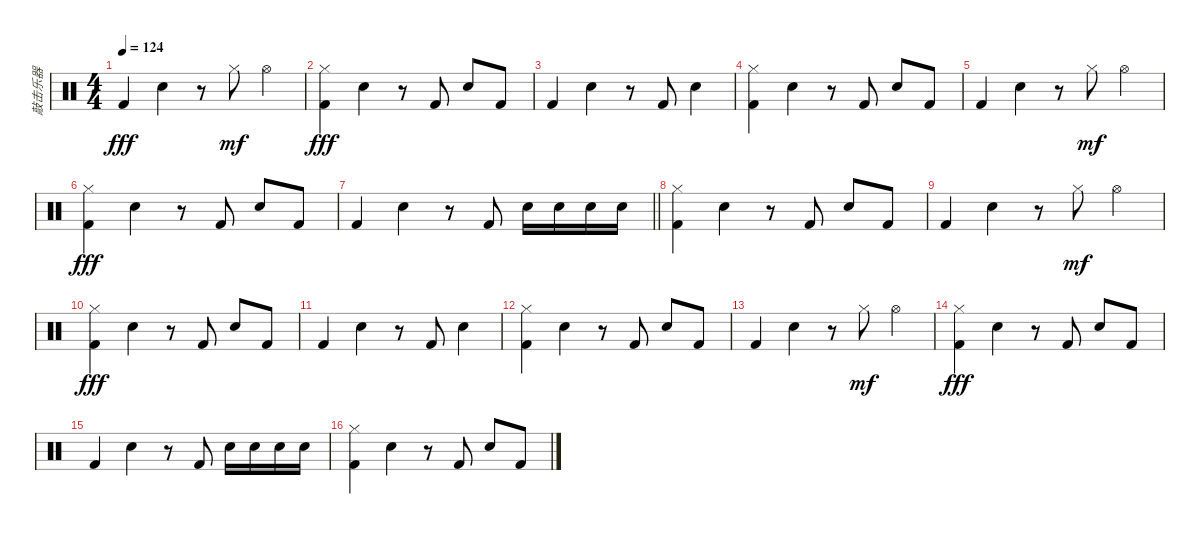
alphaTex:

\track ("敲击乐器" "敲击乐器") {instrument percussion}
\staff {score}
\articulation defaults
\ts (4 4)
\tempo 124
\clef neutral
\ks c "Kick (hit) 2".4{dy fff} "Snare (hit) 2".4
r.8 "Hi-Hat (closed)".8{dy mf} "Hi-Hat (open)".4 |
("Hi-Hat (closed)" "Kick (hit) 2").4{dy fff} "Snare (hit) 2".4 r.8 "Kick (hit) 2".8 "Snare (hit) 2".8 "Kick (hit) 2".8 |
"Kick (hit) 2".4 "Snare (hit) 2".4 r.8 "Kick (hit) 2".8 "Snare (hit) 2".4 |
("Hi-Hat (closed)" "Kick (hit) 2").4 "Snare (hit) 2".4 r.8 "Kick (hit) 2".8 "Snare (hit) 2".8 "Kick (hit) 2".8 |
"Kick (hit) 2".4 "Snare (hit) 2".4 r.8 "Hi-Hat (closed)".8{dy mf} "Hi-Hat (open)".4 |
("Hi-Hat (closed)" "Kick (hit) 2").4{dy fff} "Snare (hit) 2".4 r.8 "Kick (hit) 2".8 "Snare (hit) 2".8 "Kick (hit) 2".8 |
\barLineRight lightlight "Kick (hit) 2".4 "Snare (hit) 2".4
r.8 "Kick (hit) 2".8 "Snare (hit) 2".16 "Snare (hit) 2".16 "Snare (hit) 2".16 "Snare (hit) 2".16 |
("Hi-Hat (closed)" "Kick (hit) 2").4 "Snare (hit) 2".4 r.8 "Kick (hit) 2".8 "Snare (hit) 2".8 "Kick (hit) 2".8 |
"Kick (hit) 2".4 "Snare (hit) 2".4 r.8 "Hi-Hat (closed)".8{dy mf} "Hi-Hat (open)".4 |
("Hi-Hat (closed)" "Kick (hit) 2").4{dy fff} "Snare (hit) 2".4 r.8 "Kick (hit) 2".8 "Snare (hit) 2".8 "Kick (hit) 2".8 |
"Kick (hit) 2".4 "Snare (hit) 2".4 r.8 "Kick (hit) 2".8 "Snare (hit) 2".4 |
("Hi-Hat (closed)" "Kick (hit) 2").4 "Snare (hit) 2".4 r.8 "Kick (hit) 2".8 "Snare (hit) 2".8 "Kick (hit) 2".8 |
"Kick (hit) 2".4 "Snare (hit) 2".4 r.8 "Hi-Hat (closed)".8{dy mf} "Hi-Hat (open)".4 |
("Hi-Hat (closed)" "Kick (hit) 2").4{dy fff} "Snare (hit) 2".4 r.8 "Kick (hit) 2".8 "Snare (hit) 2".8 "Kick (hit) 2".8 |
"Kick (hit) 2".4 "Snare (hit) 2".4 r.8 "Kick (hit) 2".8 "Snare (hit) 2".16 "Snare (hit) 2".16 "Snare (hit) 2".16 "Snare (hit) 2".16 |
("Hi-Hat (closed)" "Kick (hit) 2").4 "Snare (hit) 2".4 r.8 "Kick (hit) 2".8 "Snare (hit) 2".8 "Kick (hit) 2".8
